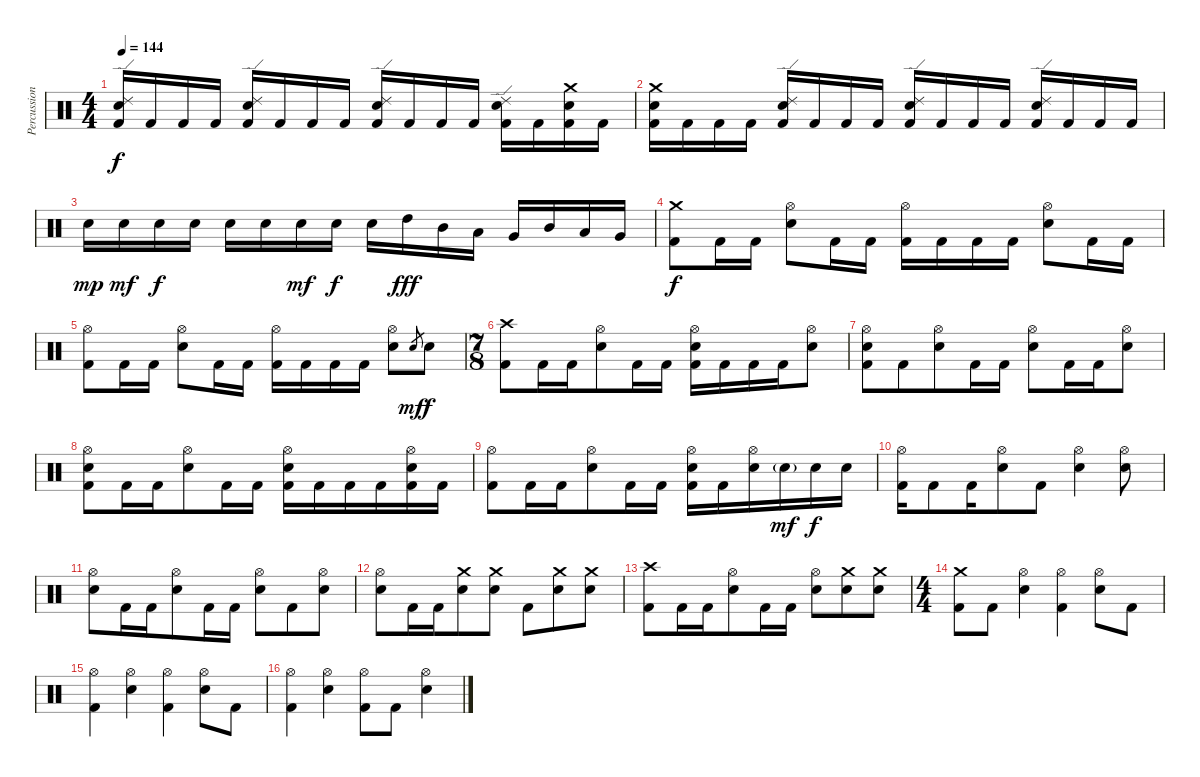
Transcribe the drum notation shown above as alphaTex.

\track ("Percussion" "Percussion") {instrument percussion}
\staff {score}
\articulation defaults
\ts (4 4)
\tempo 144
\clef neutral
\ks c
("Ride (edge) 2" "Snare (hit) 2" "Kick (hit) 2").16{dy f} "Kick (hit) 2".16 "Kick (hit) 2".16 "Kick (hit) 2".16 ("Ride (edge) 2" "Snare (hit) 2" "Kick (hit) 2").16 "Kick (hit) 2".16 "Kick (hit) 2".16 "Kick (hit) 2".16 ("Ride (edge) 2" "Snare (hit) 2" "Kick (hit) 2").16 "Kick (hit) 2".16 "Kick (hit) 2".16 "Kick (hit) 2".16 ("Ride (edge) 2" "Snare (hit) 2" "Kick (hit) 2").16 "Kick (hit) 2".16 ("Crash medium (hit)" "Snare (hit) 2" "Kick (hit) 2").16 "Kick (hit) 2".16 |
("Crash medium (hit)" "Snare (hit) 2" "Kick (hit) 2").16 "Kick (hit) 2".16 "Kick (hit) 2".16 "Kick (hit) 2".16 ("Ride (edge) 2" "Snare (hit) 2" "Kick (hit) 2").16 "Kick (hit) 2".16 "Kick (hit) 2".16 "Kick (hit) 2".16 ("Ride (edge) 2" "Snare (hit) 2" "Kick (hit) 2").16 "Kick (hit) 2".16 "Kick (hit) 2".16 "Kick (hit) 2".16 ("Ride (edge) 2" "Snare (hit) 2" "Kick (hit) 2").16 "Kick (hit) 2".16 "Kick (hit) 2".16 "Kick (hit) 2".16 |
"Snare (hit) 2".16{dy mp} "Snare (hit) 2".16{dy mf} "Snare (hit) 2".16{dy f} "Snare (hit) 2".16 "Snare (hit) 2".16 "Snare (hit) 2".16 "Snare (hit) 2".16{dy mf} "Snare (hit) 2".16{dy f} "Snare (hit) 2".16 "High Tom (hit)".16{dy fff} "Mid Tom (hit)".16 "Low Tom (hit)".16 "Very Low Tom (hit)".16 "Mid Tom (hit)".16 "Low Tom (hit)".16 "Very Low Tom (hit)".16 |
\section ("" "")
("Crash medium (hit)" "Kick (hit) 2").8{dy f} "Kick (hit) 2".16 "Kick (hit) 2".16 ("Hi-Hat (open)" "Snare (hit) 2").8 "Kick (hit) 2".16 "Kick (hit) 2".16 ("Hi-Hat (open)" "Kick (hit) 2").16 "Kick (hit) 2".16 "Kick (hit) 2".16 "Kick (hit) 2".16 ("Hi-Hat (open)" "Snare (hit) 2").8 "Kick (hit) 2".16 "Kick (hit) 2".16 |
("Hi-Hat (open)" "Kick (hit) 2").8 "Kick (hit) 2".16 "Kick (hit) 2".16 ("Hi-Hat (open)" "Snare (hit) 2").8 "Kick (hit) 2".16 "Kick (hit) 2".16 ("Hi-Hat (open)" "Kick (hit) 2").16 "Kick (hit) 2".16 "Kick (hit) 2".16 "Kick (hit) 2".16 ("Hi-Hat (open)" "Snare (hit) 2").8 "Snare (hit) 2".8{gr dy mf} "Snare (hit) 2".8{dy f} |
\ts (7 8)
("Crash high (hit)" "Kick (hit) 2").8 "Kick (hit) 2".16 "Kick (hit) 2".16 ("Hi-Hat (open)" "Snare (hit) 2").8 "Kick (hit) 2".16 "Kick (hit) 2".16 ("Hi-Hat (open)" "Snare (hit) 2" "Kick (hit) 2").16 "Kick (hit) 2".16 "Kick (hit) 2".16 "Kick (hit) 2".16 ("Hi-Hat (open)" "Snare (hit) 2").8 |
("Hi-Hat (open)" "Snare (hit) 2" "Kick (hit) 2").8 "Kick (hit) 2".8 ("Hi-Hat (open)" "Snare (hit) 2").8 "Kick (hit) 2".16 "Kick (hit) 2".16 ("Hi-Hat (open)" "Snare (hit) 2").8 "Kick (hit) 2".16 "Kick (hit) 2".16 ("Hi-Hat (open)" "Snare (hit) 2").8 |
("Hi-Hat (open)" "Snare (hit) 2" "Kick (hit) 2").8 "Kick (hit) 2".16 "Kick (hit) 2".16 ("Hi-Hat (open)" "Snare (hit) 2").8 "Kick (hit) 2".16 "Kick (hit) 2".16 ("Hi-Hat (open)" "Snare (hit) 2" "Kick (hit) 2").16 "Kick (hit) 2".16 "Kick (hit) 2".16 "Kick (hit) 2".16 ("Hi-Hat (open)" "Snare (hit) 2" "Kick (hit) 2").16 "Kick (hit) 2".16 |
("Hi-Hat (open)" "Kick (hit) 2").8 "Kick (hit) 2".16 "Kick (hit) 2".16 ("Hi-Hat (open)" "Snare (hit) 2").8 "Kick (hit) 2".16 "Kick (hit) 2".16 ("Hi-Hat (open)" "Snare (hit) 2" "Kick (hit) 2").16 "Kick (hit) 2".16 ("Hi-Hat (open)" "Snare (hit) 2").16 "Snare (hit) 2"{g}.16{dy mf} "Snare (hit) 2".16{dy f} "Snare (hit) 2".16 |
("Hi-Hat (open)" "Kick (hit) 2").16 "Kick (hit) 2".8 "Kick (hit) 2".16 ("Hi-Hat (open)" "Snare (hit) 2").8 "Kick (hit) 2".8 ("Hi-Hat (open)" "Snare (hit) 2").4 ("Hi-Hat (open)" "Snare (hit) 2").8 |
("Hi-Hat (open)" "Snare (hit) 2").8 "Kick (hit) 2".16 "Kick (hit) 2".16 ("Hi-Hat (open)" "Snare (hit) 2").8 "Kick (hit) 2".16 "Kick (hit) 2".16 ("Hi-Hat (open)" "Snare (hit) 2").8 "Kick (hit) 2".8 ("Hi-Hat (open)" "Snare (hit) 2").8 |
("Hi-Hat (open)" "Snare (hit) 2").8 "Kick (hit) 2".16 "Kick (hit) 2".16 ("Crash medium (hit)" "Snare (hit) 2").8 ("Crash medium (hit)" "Snare (hit) 2").8 "Kick (hit) 2".8 ("Crash medium (hit)" "Snare (hit) 2").8 ("Crash medium (hit)" "Snare (hit) 2").8 |
("Crash high (hit)" "Kick (hit) 2").8 "Kick (hit) 2".16 "Kick (hit) 2".16 ("Hi-Hat (open)" "Snare (hit) 2").8 "Kick (hit) 2".16 "Kick (hit) 2".16 ("Hi-Hat (open)" "Snare (hit) 2").8 ("Crash medium (hit)" "Snare (hit) 2").8 ("Crash medium (hit)" "Snare (hit) 2").8 |
\ts (4 4)
\section ("" "")
("Crash medium (hit)" "Kick (hit) 2").8 "Kick (hit) 2".8 ("Hi-Hat (open)" "Snare (hit) 2").4 ("Hi-Hat (open)" "Kick (hit) 2").4 ("Hi-Hat (open)" "Snare (hit) 2").8 "Kick (hit) 2".8 |
("Hi-Hat (open)" "Kick (hit) 2").4 ("Hi-Hat (open)" "Snare (hit) 2").4 ("Hi-Hat (open)" "Kick (hit) 2").4 ("Hi-Hat (open)" "Snare (hit) 2").8 "Kick (hit) 2".8 |
("Hi-Hat (open)" "Kick (hit) 2").4 ("Hi-Hat (open)" "Snare (hit) 2").4 ("Hi-Hat (open)" "Kick (hit) 2").8 "Kick (hit) 2".8 ("Hi-Hat (open)" "Snare (hit) 2").4
